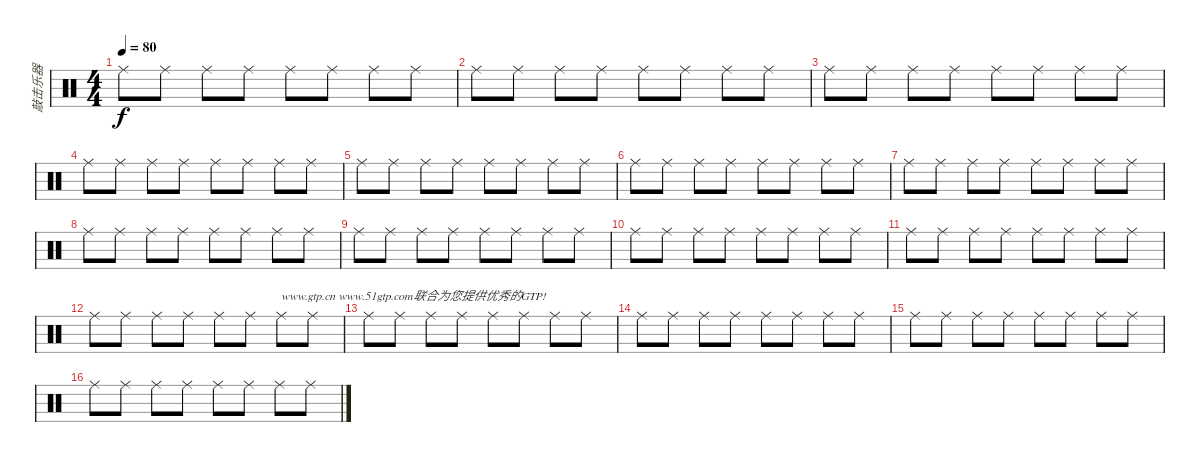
\track ("敲击乐器" "敲击乐器") {instrument percussion}
\staff {score}
\articulation defaults
\ts (4 4)
\tempo 80
\clef neutral
\ks c "Ride (middle)".8{dy f} "Ride (middle)".8 "Ride (middle)".8 "Ride (middle)".8 "Ride (middle)".8 "Ride (middle)".8 "Ride (middle)".8 "Ride (middle)".8
|
"Ride (middle)".8 "Ride (middle)".8 "Ride (middle)".8 "Ride (middle)".8 "Ride (middle)".8 "Ride (middle)".8 "Ride (middle)".8 "Ride (middle)".8 |
"Ride (middle)".8 "Ride (middle)".8 "Ride (middle)".8 "Ride (middle)".8 "Ride (middle)".8 "Ride (middle)".8 "Ride (middle)".8 "Ride (middle)".8 |
"Ride (middle)".8 "Ride (middle)".8 "Ride (middle)".8 "Ride (middle)".8 "Ride (middle)".8 "Ride (middle)".8 "Ride (middle)".8 "Ride (middle)".8 |
"Ride (middle)".8 "Ride (middle)".8 "Ride (middle)".8 "Ride (middle)".8 "Ride (middle)".8 "Ride (middle)".8 "Ride (middle)".8 "Ride (middle)".8 |
"Ride (middle)".8 "Ride (middle)".8 "Ride (middle)".8 "Ride (middle)".8 "Ride (middle)".8 "Ride (middle)".8 "Ride (middle)".8 "Ride (middle)".8 |
"Ride (middle)".8 "Ride (middle)".8 "Ride (middle)".8 "Ride (middle)".8 "Ride (middle)".8 "Ride (middle)".8 "Ride (middle)".8 "Ride (middle)".8 |
"Ride (middle)".8 "Ride (middle)".8 "Ride (middle)".8 "Ride (middle)".8 "Ride (middle)".8 "Ride (middle)".8 "Ride (middle)".8 "Ride (middle)".8 |
"Ride (middle)".8 "Ride (middle)".8 "Ride (middle)".8 "Ride (middle)".8 "Ride (middle)".8 "Ride (middle)".8 "Ride (middle)".8 "Ride (middle)".8 |
"Ride (middle)".8 "Ride (middle)".8 "Ride (middle)".8 "Ride (middle)".8 "Ride (middle)".8 "Ride (middle)".8 "Ride (middle)".8 "Ride (middle)".8 |
"Ride (middle)".8 "Ride (middle)".8 "Ride (middle)".8 "Ride (middle)".8 "Ride (middle)".8 "Ride (middle)".8 "Ride (middle)".8 "Ride (middle)".8 |
"Ride (middle)".8 "Ride (middle)".8 "Ride (middle)".8 "Ride (middle)".8 "Ride (middle)".8 "Ride (middle)".8 "Ride (middle)".8{txt "www.gtp.cn www.51gtp.com联合为您提供优秀的GTP!"} "Ride (middle)".8 |
"Ride (middle)".8 "Ride (middle)".8 "Ride (middle)".8 "Ride (middle)".8 "Ride (middle)".8 "Ride (middle)".8 "Ride (middle)".8 "Ride (middle)".8 |
"Ride (middle)".8 "Ride (middle)".8 "Ride (middle)".8 "Ride (middle)".8 "Ride (middle)".8 "Ride (middle)".8 "Ride (middle)".8 "Ride (middle)".8 |
"Ride (middle)".8 "Ride (middle)".8 "Ride (middle)".8 "Ride (middle)".8 "Ride (middle)".8 "Ride (middle)".8 "Ride (middle)".8 "Ride (middle)".8 |
"Ride (middle)".8 "Ride (middle)".8 "Ride (middle)".8 "Ride (middle)".8 "Ride (middle)".8 "Ride (middle)".8 "Ride (middle)".8 "Ride (middle)".8
